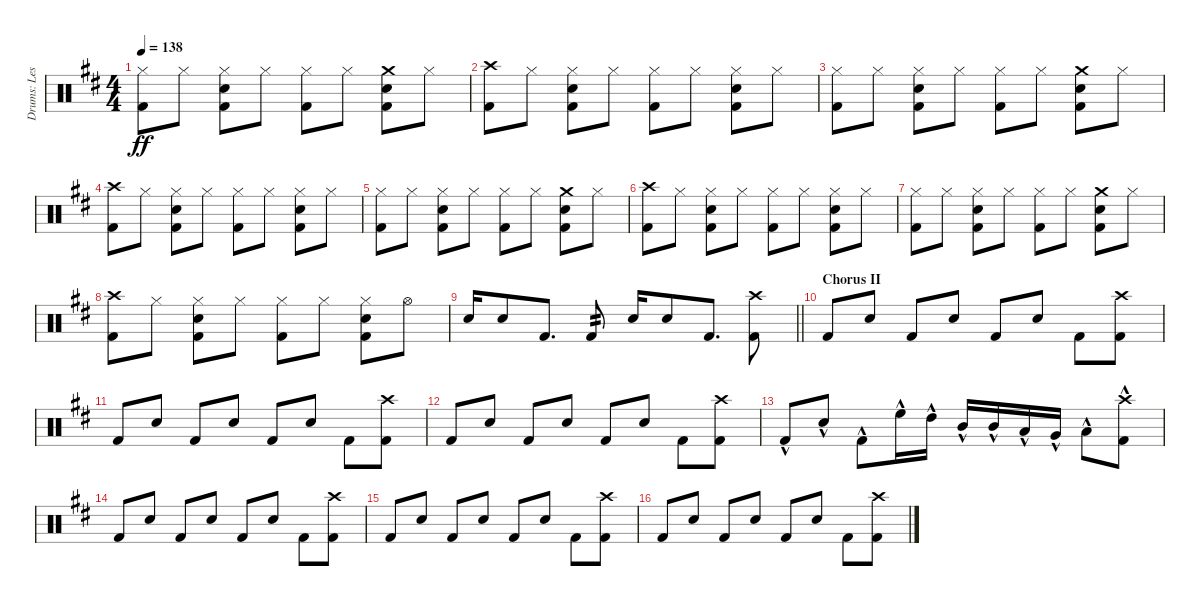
\track ("Drums: Les" "Drums: Les") {instrument percussion}
\staff {score}
\articulation defaults
\ts (4 4)
\tempo 138
\clef neutral
\ks d
("Hi-Hat (closed)" "Kick (hit) 2").8{dy ff} "Hi-Hat (closed)".8 ("Hi-Hat (closed)" "Snare (hit) 2" "Kick (hit) 2").8 "Hi-Hat (closed)".8 ("Hi-Hat (closed)" "Kick (hit) 2").8 "Hi-Hat (closed)".8 ("Crash medium (hit)" "Snare (hit) 2" "Kick (hit) 2").8 "Hi-Hat (closed)".8 |
("Crash high (hit)" "Kick (hit) 2").8 "Hi-Hat (closed)".8 ("Hi-Hat (closed)" "Snare (hit) 2" "Kick (hit) 2").8 "Hi-Hat (closed)".8 ("Hi-Hat (closed)" "Kick (hit) 2").8 "Hi-Hat (closed)".8 ("Hi-Hat (closed)" "Snare (hit) 2" "Kick (hit) 2").8 "Hi-Hat (closed)".8 |
("Hi-Hat (closed)" "Kick (hit) 2").8 "Hi-Hat (closed)".8 ("Hi-Hat (closed)" "Snare (hit) 2" "Kick (hit) 2").8 "Hi-Hat (closed)".8 ("Hi-Hat (closed)" "Kick (hit) 2").8 "Hi-Hat (closed)".8 ("Crash medium (hit)" "Snare (hit) 2" "Kick (hit) 2").8 "Hi-Hat (closed)".8 |
("Crash high (hit)" "Kick (hit) 2").8 "Hi-Hat (closed)".8 ("Hi-Hat (closed)" "Snare (hit) 2" "Kick (hit) 2").8 "Hi-Hat (closed)".8 ("Hi-Hat (closed)" "Kick (hit) 2").8 "Hi-Hat (closed)".8 ("Hi-Hat (closed)" "Snare (hit) 2" "Kick (hit) 2").8 "Hi-Hat (closed)".8 |
("Hi-Hat (closed)" "Kick (hit) 2").8 "Hi-Hat (closed)".8 ("Hi-Hat (closed)" "Snare (hit) 2" "Kick (hit) 2").8 "Hi-Hat (closed)".8 ("Hi-Hat (closed)" "Kick (hit) 2").8 "Hi-Hat (closed)".8 ("Crash medium (hit)" "Snare (hit) 2" "Kick (hit) 2").8 "Hi-Hat (closed)".8 |
("Crash high (hit)" "Kick (hit) 2").8 "Hi-Hat (closed)".8 ("Hi-Hat (closed)" "Snare (hit) 2" "Kick (hit) 2").8 "Hi-Hat (closed)".8 ("Hi-Hat (closed)" "Kick (hit) 2").8 "Hi-Hat (closed)".8 ("Hi-Hat (closed)" "Snare (hit) 2" "Kick (hit) 2").8 "Hi-Hat (closed)".8 |
("Hi-Hat (closed)" "Kick (hit) 2").8 "Hi-Hat (closed)".8 ("Hi-Hat (closed)" "Snare (hit) 2" "Kick (hit) 2").8 "Hi-Hat (closed)".8 ("Hi-Hat (closed)" "Kick (hit) 2").8 "Hi-Hat (closed)".8 ("Crash medium (hit)" "Snare (hit) 2" "Kick (hit) 2").8 "Hi-Hat (closed)".8 |
("Crash high (hit)" "Kick (hit) 2").8 "Hi-Hat (closed)".8 ("Hi-Hat (closed)" "Snare (hit) 2" "Kick (hit) 2").8 "Hi-Hat (closed)".8 ("Hi-Hat (closed)" "Kick (hit) 2").8 "Hi-Hat (closed)".8 ("Hi-Hat (closed)" "Snare (hit) 2" "Kick (hit) 2").8 "Hi-Hat (open)".8 |
\barLineRight lightlight "Snare (hit) 2".16 "Snare (hit) 2".8 "Kick (hit) 2".8{d} "Kick (hit) 2".8{tp 2} "Snare (hit) 2".16 "Snare (hit) 2".8 "Kick (hit) 2".8{d}
("Crash high (hit)" "Kick (hit) 2").8 |
\section ("" "Chorus II")
"Kick (hit) 2".8 "Electric Snare (hit)".8 "Kick (hit) 2".8 "Electric Snare (hit)".8 "Kick (hit) 2".8 "Electric Snare (hit)".8 "Kick (hit) 2".8 ("Crash high (hit)" "Kick (hit) 2").8 |
"Kick (hit) 2".8 "Electric Snare (hit)".8 "Kick (hit) 2".8 "Electric Snare (hit)".8 "Kick (hit) 2".8 "Electric Snare (hit)".8 "Kick (hit) 2".8 ("Crash high (hit)" "Kick (hit) 2").8 |
"Kick (hit) 2".8 "Electric Snare (hit)".8 "Kick (hit) 2".8 "Electric Snare (hit)".8 "Kick (hit) 2".8 "Electric Snare (hit)".8 "Kick (hit) 2".8 ("Crash high (hit)" "Kick (hit) 2").8 |
"Kick (hit) 2"{hac}.8 "Electric Snare (hit)"{hac}.8 "Kick (hit) 2"{hac}.8 "High Floor Tom (hit)"{hac}.16 "High Tom (hit)"{hac}.16 "Mid Tom (hit)"{hac}.16 "Mid Tom (hit)"{hac}.16 "Low Tom (hit)"{hac}.16 "Very Low Tom (hit)"{hac}.16 "Low Floor Tom (hit)"{hac}.8 ("Crash high (hit)"{hac} "Kick (hit) 2"{hac}).8 |
"Kick (hit) 2".8 "Electric Snare (hit)".8 "Kick (hit) 2".8 "Electric Snare (hit)".8 "Kick (hit) 2".8 "Electric Snare (hit)".8 "Kick (hit) 2".8 ("Crash high (hit)" "Kick (hit) 2").8 |
"Kick (hit) 2".8 "Electric Snare (hit)".8 "Kick (hit) 2".8 "Electric Snare (hit)".8 "Kick (hit) 2".8 "Electric Snare (hit)".8 "Kick (hit) 2".8 ("Crash high (hit)" "Kick (hit) 2").8 |
"Kick (hit) 2".8 "Electric Snare (hit)".8 "Kick (hit) 2".8 "Electric Snare (hit)".8 "Kick (hit) 2".8 "Electric Snare (hit)".8 "Kick (hit) 2".8 ("Crash high (hit)" "Kick (hit) 2").8
